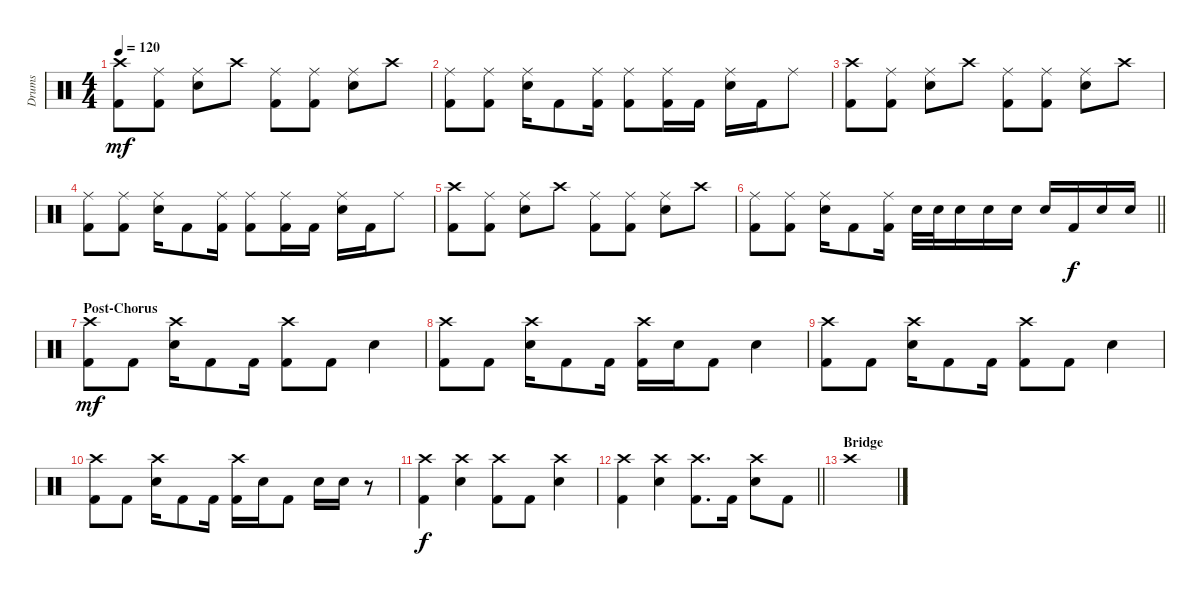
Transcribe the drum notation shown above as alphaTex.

\track ("Drums" "Drums") {instrument percussion}
\staff {score}
\articulation defaults
\ts (4 4)
\tempo 120
\clef neutral
\ks c
("Crash high (hit)" "Kick (hit) 2").8{dy mf} ("Ride (middle)" "Kick (hit) 2").8 ("Ride (middle)" "Electric Snare (hit)").8 "Crash high (hit)".8 ("Ride (middle)" "Kick (hit) 2").8 ("Ride (middle)" "Kick (hit) 2").8 ("Ride (middle)" "Electric Snare (hit)").8 "Crash high (hit)".8 |
("Ride (middle)" "Kick (hit) 2").8 ("Ride (middle)" "Kick (hit) 2").8 ("Ride (middle)" "Electric Snare (hit)").16 "Kick (hit) 2".8 ("Ride (middle)" "Kick (hit) 2").16 ("Ride (middle)" "Kick (hit) 2").8 ("Ride (middle)" "Kick (hit) 2").16 "Kick (hit) 2".16 ("Ride (middle)" "Electric Snare (hit)").16 "Kick (hit) 2".16 "Ride (middle)".8 |
("Crash high (hit)" "Kick (hit) 2").8 ("Ride (middle)" "Kick (hit) 2").8 ("Ride (middle)" "Electric Snare (hit)").8 "Crash high (hit)".8 ("Ride (middle)" "Kick (hit) 2").8 ("Ride (middle)" "Kick (hit) 2").8 ("Ride (middle)" "Electric Snare (hit)").8 "Crash high (hit)".8 |
("Ride (middle)" "Kick (hit) 2").8 ("Ride (middle)" "Kick (hit) 2").8 ("Ride (middle)" "Electric Snare (hit)").16 "Kick (hit) 2".8 ("Ride (middle)" "Kick (hit) 2").16 ("Ride (middle)" "Kick (hit) 2").8 ("Ride (middle)" "Kick (hit) 2").16 "Kick (hit) 2".16 ("Ride (middle)" "Electric Snare (hit)").16 "Kick (hit) 2".16 "Ride (middle)".8 |
("Crash high (hit)" "Kick (hit) 2").8 ("Ride (middle)" "Kick (hit) 2").8 ("Ride (middle)" "Electric Snare (hit)").8 "Crash high (hit)".8 ("Ride (middle)" "Kick (hit) 2").8 ("Ride (middle)" "Kick (hit) 2").8 ("Ride (middle)" "Electric Snare (hit)").8 "Crash high (hit)".8 |
\barLineRight lightlight
("Ride (middle)" "Kick (hit) 2").8 ("Ride (middle)" "Kick (hit) 2").8 ("Ride (middle)" "Electric Snare (hit)").16 "Kick (hit) 2".8 ("Ride (middle)" "Kick (hit) 2").16 "Electric Snare (hit)".32 "Electric Snare (hit)".32 "Electric Snare (hit)".16 "Electric Snare (hit)".16 "Electric Snare (hit)".16 "Electric Snare (hit)".16 "Kick (hit) 2".16{dy f} "Electric Snare (hit)".16 "Electric Snare (hit)".16 |
\section ("" "Post-Chorus")
("Crash high (hit)" "Kick (hit) 2").8{dy mf} "Kick (hit) 2".8 ("Crash high (hit)" "Electric Snare (hit)").16 "Kick (hit) 2".8 "Kick (hit) 2".16 ("Crash high (hit)" "Kick (hit) 2").8 "Kick (hit) 2".8 "Electric Snare (hit)".4 |
("Crash high (hit)" "Kick (hit) 2").8 "Kick (hit) 2".8 ("Crash high (hit)" "Electric Snare (hit)").16 "Kick (hit) 2".8 "Kick (hit) 2".16 ("Crash high (hit)" "Kick (hit) 2").16 "Electric Snare (hit)".16 "Kick (hit) 2".8 "Electric Snare (hit)".4 |
("Crash high (hit)" "Kick (hit) 2").8 "Kick (hit) 2".8 ("Crash high (hit)" "Electric Snare (hit)").16 "Kick (hit) 2".8 "Kick (hit) 2".16 ("Crash high (hit)" "Kick (hit) 2").8 "Kick (hit) 2".8 "Electric Snare (hit)".4 |
("Crash high (hit)" "Kick (hit) 2").8 "Kick (hit) 2".8 ("Crash high (hit)" "Electric Snare (hit)").16 "Kick (hit) 2".8 "Kick (hit) 2".16 ("Crash high (hit)" "Kick (hit) 2").16 "Electric Snare (hit)".16 "Kick (hit) 2".8 "Electric Snare (hit)".16 "Electric Snare (hit)".16 r.8 |
("Crash high (hit)" "Kick (hit) 2").4{dy f} ("Crash high (hit)" "Electric Snare (hit)").4 ("Crash high (hit)" "Kick (hit) 2").8 "Kick (hit) 2".8 ("Crash high (hit)" "Electric Snare (hit)").4 |
\barLineRight lightlight
("Crash high (hit)" "Kick (hit) 2").4 ("Crash high (hit)" "Electric Snare (hit)").4 ("Crash high (hit)" "Kick (hit) 2").8{d} "Kick (hit) 2".16 ("Crash high (hit)" "Electric Snare (hit)").8 "Kick (hit) 2".8 |
\section ("" "Bridge")
"Crash high (hit)".1
